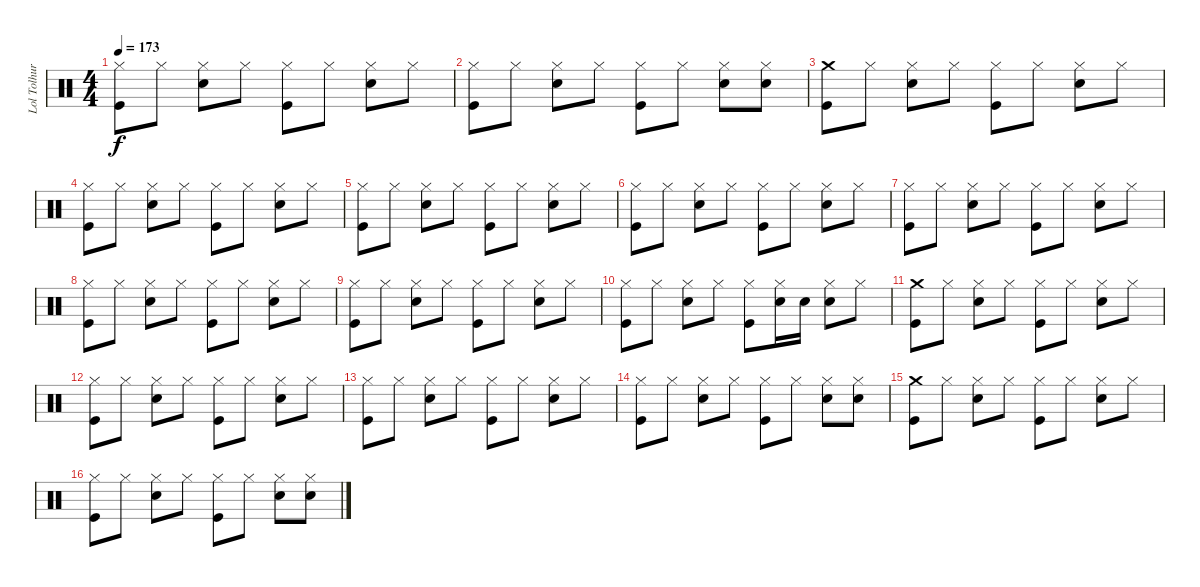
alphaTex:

\track ("Lol Tolhurst" "Lol Tolhur") {instrument percussion}
\staff {score}
\articulation defaults
\ts (4 4)
\tempo 173
\clef neutral
\ks c
("Hi-Hat (closed)" "Kick (hit)").8{dy f} "Hi-Hat (closed)".8 ("Hi-Hat (closed)" "Snare (hit) 2").8 "Hi-Hat (closed)".8 ("Hi-Hat (closed)" "Kick (hit)").8 "Hi-Hat (closed)".8 ("Hi-Hat (closed)" "Snare (hit) 2").8 "Hi-Hat (closed)".8 |
("Hi-Hat (closed)" "Kick (hit)").8 "Hi-Hat (closed)".8 ("Hi-Hat (closed)" "Snare (hit) 2").8 "Hi-Hat (closed)".8 ("Hi-Hat (closed)" "Kick (hit)").8 "Hi-Hat (closed)".8 ("Hi-Hat (closed)" "Snare (hit) 2").8 ("Hi-Hat (closed)" "Snare (hit) 2").8 |
("Crash medium (hit)" "Kick (hit)").8 "Hi-Hat (closed)".8 ("Hi-Hat (closed)" "Snare (hit) 2").8 "Hi-Hat (closed)".8 ("Hi-Hat (closed)" "Kick (hit)").8 "Hi-Hat (closed)".8 ("Hi-Hat (closed)" "Snare (hit) 2").8 "Hi-Hat (closed)".8 |
("Hi-Hat (closed)" "Kick (hit)").8 "Hi-Hat (closed)".8 ("Hi-Hat (closed)" "Snare (hit) 2").8 "Hi-Hat (closed)".8 ("Hi-Hat (closed)" "Kick (hit)").8 "Hi-Hat (closed)".8 ("Hi-Hat (closed)" "Snare (hit) 2").8 "Hi-Hat (closed)".8 |
("Hi-Hat (closed)" "Kick (hit)").8 "Hi-Hat (closed)".8 ("Hi-Hat (closed)" "Snare (hit) 2").8 "Hi-Hat (closed)".8 ("Hi-Hat (closed)" "Kick (hit)").8 "Hi-Hat (closed)".8 ("Hi-Hat (closed)" "Snare (hit) 2").8 "Hi-Hat (closed)".8 |
("Hi-Hat (closed)" "Kick (hit)").8 "Hi-Hat (closed)".8 ("Hi-Hat (closed)" "Snare (hit) 2").8 "Hi-Hat (closed)".8 ("Hi-Hat (closed)" "Kick (hit)").8 "Hi-Hat (closed)".8 ("Hi-Hat (closed)" "Snare (hit) 2").8 "Hi-Hat (closed)".8 |
("Hi-Hat (closed)" "Kick (hit)").8 "Hi-Hat (closed)".8 ("Hi-Hat (closed)" "Snare (hit) 2").8 "Hi-Hat (closed)".8 ("Hi-Hat (closed)" "Kick (hit)").8 "Hi-Hat (closed)".8 ("Hi-Hat (closed)" "Snare (hit) 2").8 "Hi-Hat (closed)".8 |
("Hi-Hat (closed)" "Kick (hit)").8 "Hi-Hat (closed)".8 ("Hi-Hat (closed)" "Snare (hit) 2").8 "Hi-Hat (closed)".8 ("Hi-Hat (closed)" "Kick (hit)").8 "Hi-Hat (closed)".8 ("Hi-Hat (closed)" "Snare (hit) 2").8 "Hi-Hat (closed)".8 |
("Hi-Hat (closed)" "Kick (hit)").8 "Hi-Hat (closed)".8 ("Hi-Hat (closed)" "Snare (hit) 2").8 "Hi-Hat (closed)".8 ("Hi-Hat (closed)" "Kick (hit)").8 "Hi-Hat (closed)".8 ("Hi-Hat (closed)" "Snare (hit) 2").8 "Hi-Hat (closed)".8 |
("Hi-Hat (closed)" "Kick (hit)").8 "Hi-Hat (closed)".8 ("Hi-Hat (closed)" "Snare (hit) 2").8 "Hi-Hat (closed)".8 ("Hi-Hat (closed)" "Kick (hit)").8 ("Hi-Hat (closed)" "Snare (hit) 2").16 "Snare (hit) 2".16 ("Hi-Hat (closed)" "Snare (hit) 2").8 "Hi-Hat (closed)".8 |
("Crash medium (hit)" "Kick (hit)").8 "Hi-Hat (closed)".8 ("Hi-Hat (closed)" "Snare (hit) 2").8 "Hi-Hat (closed)".8 ("Hi-Hat (closed)" "Kick (hit)").8 "Hi-Hat (closed)".8 ("Hi-Hat (closed)" "Snare (hit) 2").8 "Hi-Hat (closed)".8 |
("Hi-Hat (closed)" "Kick (hit)").8 "Hi-Hat (closed)".8 ("Hi-Hat (closed)" "Snare (hit) 2").8 "Hi-Hat (closed)".8 ("Hi-Hat (closed)" "Kick (hit)").8 "Hi-Hat (closed)".8 ("Hi-Hat (closed)" "Snare (hit) 2").8 "Hi-Hat (closed)".8 |
("Hi-Hat (closed)" "Kick (hit)").8 "Hi-Hat (closed)".8 ("Hi-Hat (closed)" "Snare (hit) 2").8 "Hi-Hat (closed)".8 ("Hi-Hat (closed)" "Kick (hit)").8 "Hi-Hat (closed)".8 ("Hi-Hat (closed)" "Snare (hit) 2").8 "Hi-Hat (closed)".8 |
("Hi-Hat (closed)" "Kick (hit)").8 "Hi-Hat (closed)".8 ("Hi-Hat (closed)" "Snare (hit) 2").8 "Hi-Hat (closed)".8 ("Hi-Hat (closed)" "Kick (hit)").8 "Hi-Hat (closed)".8 ("Hi-Hat (closed)" "Snare (hit) 2").8 ("Hi-Hat (closed)" "Snare (hit) 2").8 |
("Crash medium (hit)" "Kick (hit)").8 "Hi-Hat (closed)".8 ("Hi-Hat (closed)" "Snare (hit) 2").8 "Hi-Hat (closed)".8 ("Hi-Hat (closed)" "Kick (hit)").8 "Hi-Hat (closed)".8 ("Hi-Hat (closed)" "Snare (hit) 2").8 "Hi-Hat (closed)".8 |
("Hi-Hat (closed)" "Kick (hit)").8 "Hi-Hat (closed)".8 ("Hi-Hat (closed)" "Snare (hit) 2").8 "Hi-Hat (closed)".8 ("Hi-Hat (closed)" "Kick (hit)").8 "Hi-Hat (closed)".8 ("Hi-Hat (closed)" "Snare (hit) 2").8 ("Hi-Hat (closed)" "Snare (hit) 2").8
